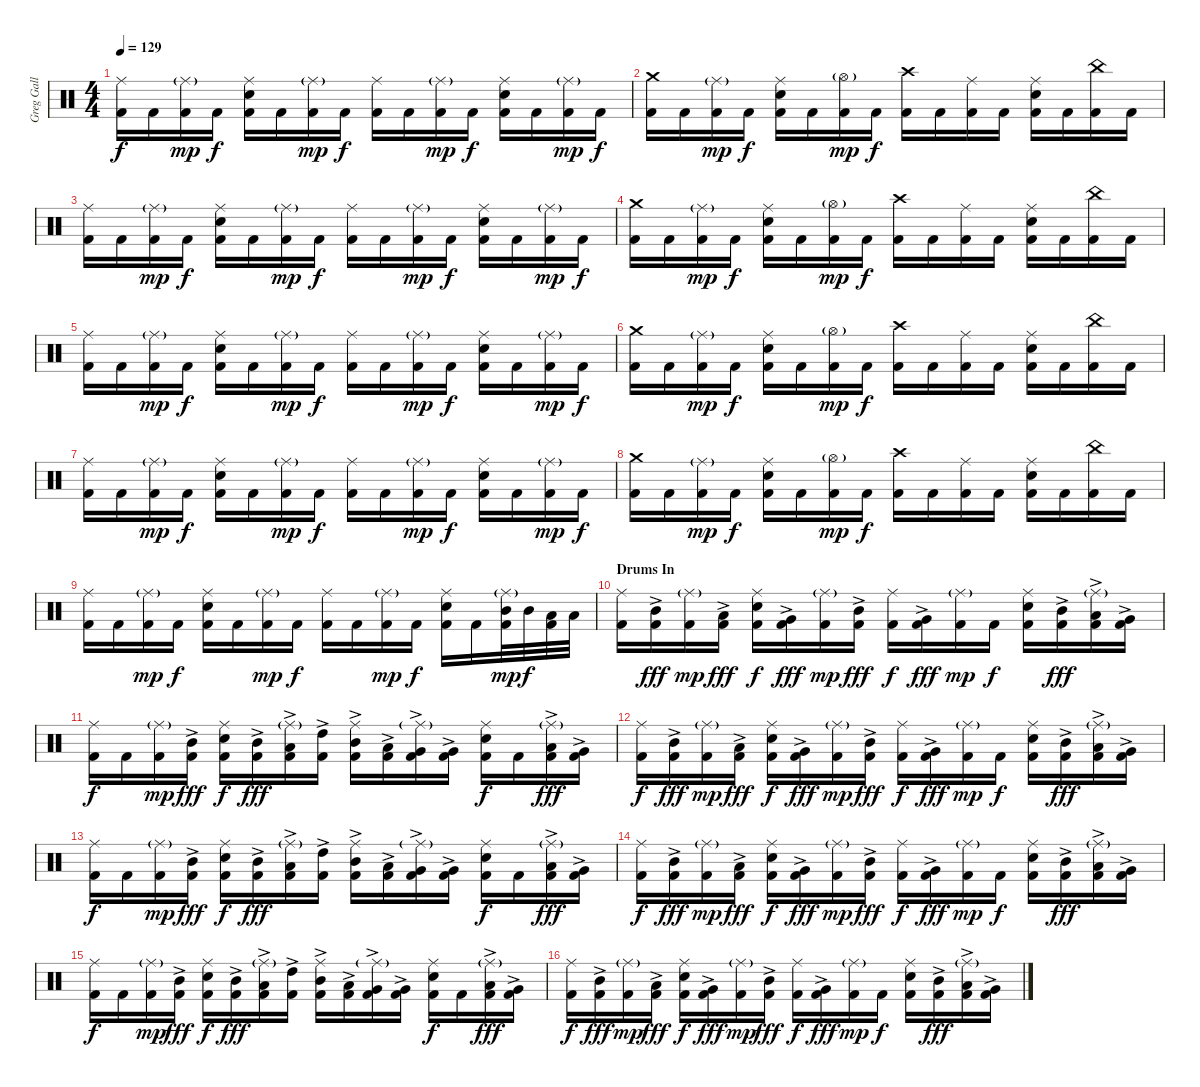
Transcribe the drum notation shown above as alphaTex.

\track ("Greg Gall (Drums)" "Greg Gall ") {instrument percussion}
\staff {score}
\articulation defaults
\ts (4 4)
\tempo 129
\clef neutral
\ks c
("Ride (middle)" "Kick (hit) 2").16{dy f} "Kick (hit) 2".16 ("Ride (middle)"{g} "Kick (hit) 2").16{dy mp} "Kick (hit) 2".16{dy f} ("Ride (middle)" "Electric Snare (hit)" "Kick (hit) 2").16 "Kick (hit) 2".16 ("Ride (middle)"{g} "Kick (hit) 2").16{dy mp} "Kick (hit) 2".16{dy f} ("Ride (middle)" "Kick (hit) 2").16 "Kick (hit) 2".16 ("Ride (middle)"{g} "Kick (hit) 2").16{dy mp} "Kick (hit) 2".16{dy f} ("Ride (middle)" "Electric Snare (hit)" "Kick (hit) 2").16 "Kick (hit) 2".16 ("Ride (middle)"{g} "Kick (hit) 2").16{dy mp} "Kick (hit) 2".16{dy f} |
("Crash medium (hit)" "Kick (hit) 2").16 "Kick (hit) 2".16 ("Ride (middle)"{g} "Kick (hit) 2").16{dy mp} "Kick (hit) 2".16{dy f} ("Ride (middle)" "Electric Snare (hit)" "Kick (hit) 2").16 "Kick (hit) 2".16 ("Hi-Hat (open)"{g} "Kick (hit) 2").16{dy mp} "Kick (hit) 2".16{dy f} ("Crash high (hit)" "Kick (hit) 2").16 "Kick (hit) 2".16 ("Ride (middle)" "Kick (hit) 2").16 "Kick (hit) 2".16 ("Ride (middle)" "Electric Snare (hit)" "Kick (hit) 2").16 "Kick (hit) 2".16 ("China (hit)" "Kick (hit) 2").16 "Kick (hit) 2".16 |
("Ride (middle)" "Kick (hit) 2").16 "Kick (hit) 2".16 ("Ride (middle)"{g} "Kick (hit) 2").16{dy mp} "Kick (hit) 2".16{dy f} ("Ride (middle)" "Electric Snare (hit)" "Kick (hit) 2").16 "Kick (hit) 2".16 ("Ride (middle)"{g} "Kick (hit) 2").16{dy mp} "Kick (hit) 2".16{dy f} ("Ride (middle)" "Kick (hit) 2").16 "Kick (hit) 2".16 ("Ride (middle)"{g} "Kick (hit) 2").16{dy mp} "Kick (hit) 2".16{dy f} ("Ride (middle)" "Electric Snare (hit)" "Kick (hit) 2").16 "Kick (hit) 2".16 ("Ride (middle)"{g} "Kick (hit) 2").16{dy mp} "Kick (hit) 2".16{dy f} |
("Crash medium (hit)" "Kick (hit) 2").16 "Kick (hit) 2".16 ("Ride (middle)"{g} "Kick (hit) 2").16{dy mp} "Kick (hit) 2".16{dy f} ("Ride (middle)" "Electric Snare (hit)" "Kick (hit) 2").16 "Kick (hit) 2".16 ("Hi-Hat (open)"{g} "Kick (hit) 2").16{dy mp} "Kick (hit) 2".16{dy f} ("Crash high (hit)" "Kick (hit) 2").16 "Kick (hit) 2".16 ("Ride (middle)" "Kick (hit) 2").16 "Kick (hit) 2".16 ("Ride (middle)" "Electric Snare (hit)" "Kick (hit) 2").16 "Kick (hit) 2".16 ("China (hit)" "Kick (hit) 2").16 "Kick (hit) 2".16 |
("Ride (middle)" "Kick (hit) 2").16 "Kick (hit) 2".16 ("Ride (middle)"{g} "Kick (hit) 2").16{dy mp} "Kick (hit) 2".16{dy f} ("Ride (middle)" "Electric Snare (hit)" "Kick (hit) 2").16 "Kick (hit) 2".16 ("Ride (middle)"{g} "Kick (hit) 2").16{dy mp} "Kick (hit) 2".16{dy f} ("Ride (middle)" "Kick (hit) 2").16 "Kick (hit) 2".16 ("Ride (middle)"{g} "Kick (hit) 2").16{dy mp} "Kick (hit) 2".16{dy f} ("Ride (middle)" "Electric Snare (hit)" "Kick (hit) 2").16 "Kick (hit) 2".16 ("Ride (middle)"{g} "Kick (hit) 2").16{dy mp} "Kick (hit) 2".16{dy f} |
("Crash medium (hit)" "Kick (hit) 2").16 "Kick (hit) 2".16 ("Ride (middle)"{g} "Kick (hit) 2").16{dy mp} "Kick (hit) 2".16{dy f} ("Ride (middle)" "Electric Snare (hit)" "Kick (hit) 2").16 "Kick (hit) 2".16 ("Hi-Hat (open)"{g} "Kick (hit) 2").16{dy mp} "Kick (hit) 2".16{dy f} ("Crash high (hit)" "Kick (hit) 2").16 "Kick (hit) 2".16 ("Ride (middle)" "Kick (hit) 2").16 "Kick (hit) 2".16 ("Ride (middle)" "Electric Snare (hit)" "Kick (hit) 2").16 "Kick (hit) 2".16 ("China (hit)" "Kick (hit) 2").16 "Kick (hit) 2".16 |
("Ride (middle)" "Kick (hit) 2").16 "Kick (hit) 2".16 ("Ride (middle)"{g} "Kick (hit) 2").16{dy mp} "Kick (hit) 2".16{dy f} ("Ride (middle)" "Electric Snare (hit)" "Kick (hit) 2").16 "Kick (hit) 2".16 ("Ride (middle)"{g} "Kick (hit) 2").16{dy mp} "Kick (hit) 2".16{dy f} ("Ride (middle)" "Kick (hit) 2").16 "Kick (hit) 2".16 ("Ride (middle)"{g} "Kick (hit) 2").16{dy mp} "Kick (hit) 2".16{dy f} ("Ride (middle)" "Electric Snare (hit)" "Kick (hit) 2").16 "Kick (hit) 2".16 ("Ride (middle)"{g} "Kick (hit) 2").16{dy mp} "Kick (hit) 2".16{dy f} |
("Crash medium (hit)" "Kick (hit) 2").16 "Kick (hit) 2".16 ("Ride (middle)"{g} "Kick (hit) 2").16{dy mp} "Kick (hit) 2".16{dy f} ("Ride (middle)" "Electric Snare (hit)" "Kick (hit) 2").16 "Kick (hit) 2".16 ("Hi-Hat (open)"{g} "Kick (hit) 2").16{dy mp} "Kick (hit) 2".16{dy f} ("Crash high (hit)" "Kick (hit) 2").16 "Kick (hit) 2".16 ("Ride (middle)" "Kick (hit) 2").16 "Kick (hit) 2".16 ("Ride (middle)" "Electric Snare (hit)" "Kick (hit) 2").16 "Kick (hit) 2".16 ("China (hit)" "Kick (hit) 2").16 "Kick (hit) 2".16 |
("Ride (middle)" "Kick (hit) 2").16 "Kick (hit) 2".16 ("Ride (middle)"{g} "Kick (hit) 2").16{dy mp} "Kick (hit) 2".16{dy f} ("Ride (middle)" "Electric Snare (hit)" "Kick (hit) 2").16 "Kick (hit) 2".16 ("Ride (middle)"{g} "Kick (hit) 2").16{dy mp} "Kick (hit) 2".16{dy f} ("Ride (middle)" "Kick (hit) 2").16 "Kick (hit) 2".16 ("Ride (middle)"{g} "Kick (hit) 2").16{dy mp} "Kick (hit) 2".16{dy f} ("Ride (middle)" "Electric Snare (hit)" "Kick (hit) 2").16 "Kick (hit) 2".16 ("Ride (middle)"{g} "Mid Tom (hit)" "Kick (hit) 2").32{dy mp} "Mid Tom (hit)".32{dy f} ("Low Tom (hit)" "Kick (hit) 2").32 "Low Tom (hit)".32 |
\section ("" "Drums In")
("Ride (middle)" "Kick (hit) 2").16 ("Mid Tom (hit)"{ac} "Kick (hit) 2").16{dy fff} ("Ride (middle)"{g} "Kick (hit) 2").16{dy mp} ("Low Tom (hit)"{ac} "Kick (hit) 2").16{dy fff} ("Ride (middle)" "Electric Snare (hit)" "Kick (hit) 2").16{dy f} ("Very Low Tom (hit)"{ac} "Kick (hit) 2").16{dy fff} ("Ride (middle)"{g} "Kick (hit) 2").16{dy mp} ("Mid Tom (hit)"{ac} "Kick (hit) 2").16{dy fff} ("Ride (middle)" "Kick (hit) 2").16{dy f} ("Very Low Tom (hit)"{ac} "Kick (hit) 2").16{dy fff} ("Ride (middle)"{g} "Kick (hit) 2").16{dy mp} "Kick (hit) 2".16{dy f} ("Ride (middle)" "Electric Snare (hit)" "Kick (hit) 2").16 ("Mid Tom (hit)"{ac} "Kick (hit) 2").16{dy fff} ("Ride (middle)"{g} "Low Tom (hit)"{ac} "Kick (hit) 2").16 ("Very Low Tom (hit)"{ac} "Kick (hit) 2").16 |
("Ride (middle)" "Kick (hit) 2").16{dy f} "Kick (hit) 2".16 ("Ride (middle)"{g} "Kick (hit) 2").16{dy mp} ("Mid Tom (hit)"{ac} "Kick (hit) 2").16{dy fff} ("Ride (middle)" "Electric Snare (hit)" "Kick (hit) 2").16{dy f} ("Mid Tom (hit)"{ac} "Kick (hit) 2").16{dy fff} ("Ride (middle)"{g} "Low Tom (hit)"{ac} "Kick (hit) 2").16 ("High Tom (hit)"{ac} "Kick (hit) 2").16 ("Ride (middle)" "Mid Tom (hit)"{ac} "Kick (hit) 2").16 ("Low Tom (hit)"{ac} "Kick (hit) 2").16 ("Ride (middle)"{g} "Very Low Tom (hit)"{ac} "Kick (hit) 2").16 ("Very Low Tom (hit)"{ac} "Kick (hit) 2").16 ("Ride (middle)" "Electric Snare (hit)" "Kick (hit) 2").16{dy f} "Kick (hit) 2".16 ("Ride (middle)"{g} "Low Tom (hit)"{ac} "Kick (hit) 2").16{dy fff} ("Very Low Tom (hit)"{ac} "Kick (hit) 2").16 |
("Ride (middle)" "Kick (hit) 2").16{dy f} ("Mid Tom (hit)"{ac} "Kick (hit) 2").16{dy fff} ("Ride (middle)"{g} "Kick (hit) 2").16{dy mp} ("Low Tom (hit)"{ac} "Kick (hit) 2").16{dy fff} ("Ride (middle)" "Electric Snare (hit)" "Kick (hit) 2").16{dy f} ("Very Low Tom (hit)"{ac} "Kick (hit) 2").16{dy fff} ("Ride (middle)"{g} "Kick (hit) 2").16{dy mp} ("Mid Tom (hit)"{ac} "Kick (hit) 2").16{dy fff} ("Ride (middle)" "Kick (hit) 2").16{dy f} ("Very Low Tom (hit)"{ac} "Kick (hit) 2").16{dy fff} ("Ride (middle)"{g} "Kick (hit) 2").16{dy mp} "Kick (hit) 2".16{dy f} ("Ride (middle)" "Electric Snare (hit)" "Kick (hit) 2").16 ("Mid Tom (hit)"{ac} "Kick (hit) 2").16{dy fff} ("Ride (middle)"{g} "Low Tom (hit)"{ac} "Kick (hit) 2").16 ("Very Low Tom (hit)"{ac} "Kick (hit) 2").16 |
("Ride (middle)" "Kick (hit) 2").16{dy f} "Kick (hit) 2".16 ("Ride (middle)"{g} "Kick (hit) 2").16{dy mp} ("Mid Tom (hit)"{ac} "Kick (hit) 2").16{dy fff} ("Ride (middle)" "Electric Snare (hit)" "Kick (hit) 2").16{dy f} ("Mid Tom (hit)"{ac} "Kick (hit) 2").16{dy fff} ("Ride (middle)"{g} "Low Tom (hit)"{ac} "Kick (hit) 2").16 ("High Tom (hit)"{ac} "Kick (hit) 2").16 ("Ride (middle)" "Mid Tom (hit)"{ac} "Kick (hit) 2").16 ("Low Tom (hit)"{ac} "Kick (hit) 2").16 ("Ride (middle)"{g} "Very Low Tom (hit)"{ac} "Kick (hit) 2").16 ("Very Low Tom (hit)"{ac} "Kick (hit) 2").16 ("Ride (middle)" "Electric Snare (hit)" "Kick (hit) 2").16{dy f} "Kick (hit) 2".16 ("Ride (middle)"{g} "Low Tom (hit)"{ac} "Kick (hit) 2").16{dy fff} ("Very Low Tom (hit)"{ac} "Kick (hit) 2").16 |
("Ride (middle)" "Kick (hit) 2").16{dy f} ("Mid Tom (hit)"{ac} "Kick (hit) 2").16{dy fff} ("Ride (middle)"{g} "Kick (hit) 2").16{dy mp} ("Low Tom (hit)"{ac} "Kick (hit) 2").16{dy fff} ("Ride (middle)" "Electric Snare (hit)" "Kick (hit) 2").16{dy f} ("Very Low Tom (hit)"{ac} "Kick (hit) 2").16{dy fff} ("Ride (middle)"{g} "Kick (hit) 2").16{dy mp} ("Mid Tom (hit)"{ac} "Kick (hit) 2").16{dy fff} ("Ride (middle)" "Kick (hit) 2").16{dy f} ("Very Low Tom (hit)"{ac} "Kick (hit) 2").16{dy fff} ("Ride (middle)"{g} "Kick (hit) 2").16{dy mp} "Kick (hit) 2".16{dy f} ("Ride (middle)" "Electric Snare (hit)" "Kick (hit) 2").16 ("Mid Tom (hit)"{ac} "Kick (hit) 2").16{dy fff} ("Ride (middle)"{g} "Low Tom (hit)"{ac} "Kick (hit) 2").16 ("Very Low Tom (hit)"{ac} "Kick (hit) 2").16 |
("Ride (middle)" "Kick (hit) 2").16{dy f} "Kick (hit) 2".16 ("Ride (middle)"{g} "Kick (hit) 2").16{dy mp} ("Mid Tom (hit)"{ac} "Kick (hit) 2").16{dy fff} ("Ride (middle)" "Electric Snare (hit)" "Kick (hit) 2").16{dy f} ("Mid Tom (hit)"{ac} "Kick (hit) 2").16{dy fff} ("Ride (middle)"{g} "Low Tom (hit)"{ac} "Kick (hit) 2").16 ("High Tom (hit)"{ac} "Kick (hit) 2").16 ("Ride (middle)" "Mid Tom (hit)"{ac} "Kick (hit) 2").16 ("Low Tom (hit)"{ac} "Kick (hit) 2").16 ("Ride (middle)"{g} "Very Low Tom (hit)"{ac} "Kick (hit) 2").16 ("Very Low Tom (hit)"{ac} "Kick (hit) 2").16 ("Ride (middle)" "Electric Snare (hit)" "Kick (hit) 2").16{dy f} "Kick (hit) 2".16 ("Ride (middle)"{g} "Low Tom (hit)"{ac} "Kick (hit) 2").16{dy fff} ("Very Low Tom (hit)"{ac} "Kick (hit) 2").16 |
("Ride (middle)" "Kick (hit) 2").16{dy f} ("Mid Tom (hit)"{ac} "Kick (hit) 2").16{dy fff} ("Ride (middle)"{g} "Kick (hit) 2").16{dy mp} ("Low Tom (hit)"{ac} "Kick (hit) 2").16{dy fff} ("Ride (middle)" "Electric Snare (hit)" "Kick (hit) 2").16{dy f} ("Very Low Tom (hit)"{ac} "Kick (hit) 2").16{dy fff} ("Ride (middle)"{g} "Kick (hit) 2").16{dy mp} ("Mid Tom (hit)"{ac} "Kick (hit) 2").16{dy fff} ("Ride (middle)" "Kick (hit) 2").16{dy f} ("Very Low Tom (hit)"{ac} "Kick (hit) 2").16{dy fff} ("Ride (middle)"{g} "Kick (hit) 2").16{dy mp} "Kick (hit) 2".16{dy f} ("Ride (middle)" "Electric Snare (hit)" "Kick (hit) 2").16 ("Mid Tom (hit)"{ac} "Kick (hit) 2").16{dy fff} ("Ride (middle)"{g} "Low Tom (hit)"{ac} "Kick (hit) 2").16 ("Very Low Tom (hit)"{ac} "Kick (hit) 2").16
